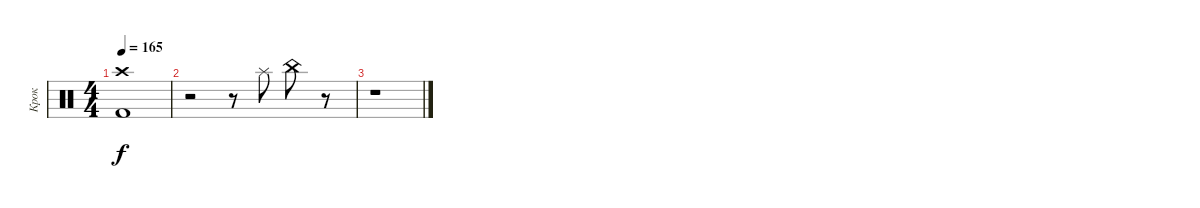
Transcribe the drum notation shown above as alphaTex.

\track ("Крок" "Крок") {instrument percussion}
\staff {score}
\articulation defaults
\ts (4 4)
\tempo 165
\clef neutral
\ks c
("Kick (hit) 2" "Crash high (hit)").1{dy f} |
r.2 r.8 "Splash (hit)".8 "China (hit)".8 r.8 |
r.1
